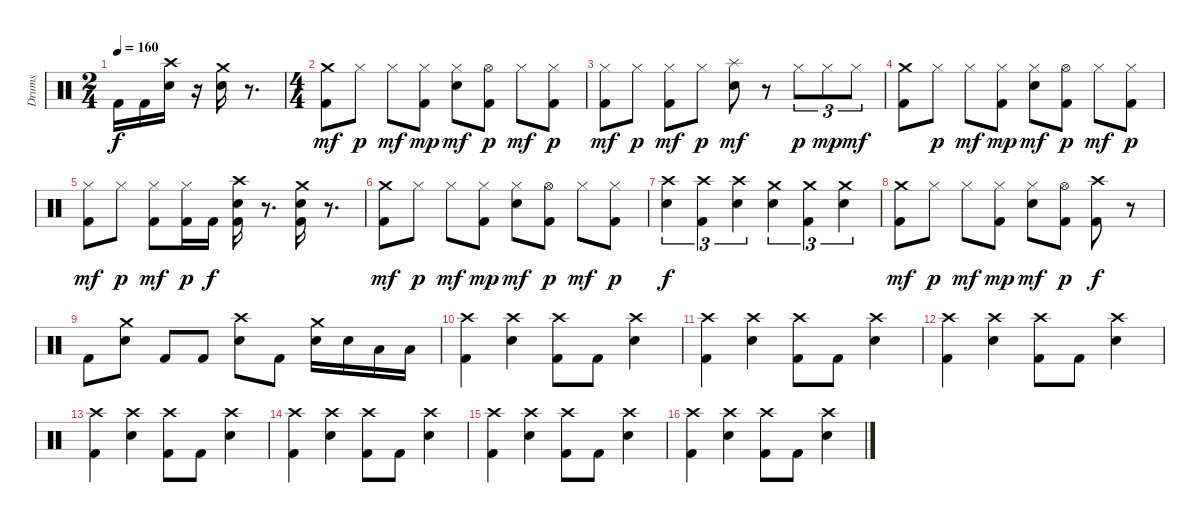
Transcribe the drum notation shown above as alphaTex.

\track ("Drums" "Drums") {instrument percussion}
\staff {score}
\articulation defaults
\ts (2 4)
\tempo 160
\clef neutral
\ks c "Kick (hit) 2".16{dy f} "Kick (hit) 2".16
("Electric Snare (hit)" "Crash high (hit)").16 r.16 ("Electric Snare (hit)" "Crash medium (hit)").16 r.8{d} |
\ts (4 4)
("Kick (hit) 2" "Crash medium (hit)").8{dy mf} "Hi-Hat (closed)".8{dy p} "Hi-Hat (closed)".8{dy mf} ("Kick (hit) 2" "Hi-Hat (closed)").8{dy mp} ("Electric Snare (hit)" "Hi-Hat (closed)").8{dy mf} ("Kick (hit) 2" "Hi-Hat (open)").8{dy p} "Hi-Hat (closed)".8{dy mf} ("Kick (hit) 2" "Hi-Hat (closed)").8{dy p} |
("Kick (hit) 2" "Hi-Hat (closed)").8{dy mf} "Hi-Hat (closed)".8{dy p} ("Kick (hit) 2" "Hi-Hat (closed)").8{dy mf} "Hi-Hat (closed)".8{dy p} ("Electric Snare (hit)" "Splash (hit)").8{dy mf} r.8 "Hi-Hat (closed)".8{tu (3 2) dy p} "Hi-Hat (closed)".8{tu (3 2) dy mp} "Hi-Hat (closed)".8{tu (3 2) dy mf} |
("Kick (hit) 2" "Crash medium (hit)").8 "Hi-Hat (closed)".8{dy p} "Hi-Hat (closed)".8{dy mf} ("Kick (hit) 2" "Hi-Hat (closed)").8{dy mp} ("Electric Snare (hit)" "Hi-Hat (closed)").8{dy mf} ("Kick (hit) 2" "Hi-Hat (open)").8{dy p} "Hi-Hat (closed)".8{dy mf} ("Kick (hit) 2" "Hi-Hat (closed)").8{dy p} |
("Kick (hit) 2" "Hi-Hat (closed)").8{dy mf} "Hi-Hat (closed)".8{dy p} ("Kick (hit) 2" "Hi-Hat (closed)").8{dy mf} ("Kick (hit) 2" "Hi-Hat (closed)").16{dy p} "Kick (hit) 2".16{dy f} ("Electric Snare (hit)" "Kick (hit) 2" "Crash high (hit)").16 r.8{d} ("Electric Snare (hit)" "Kick (hit) 2" "Crash medium (hit)").16 r.8{d} |
("Kick (hit) 2" "Crash medium (hit)").8{dy mf} "Hi-Hat (closed)".8{dy p} "Hi-Hat (closed)".8{dy mf} ("Kick (hit) 2" "Hi-Hat (closed)").8{dy mp} ("Electric Snare (hit)" "Hi-Hat (closed)").8{dy mf} ("Kick (hit) 2" "Hi-Hat (open)").8{dy p} "Hi-Hat (closed)".8{dy mf} ("Kick (hit) 2" "Hi-Hat (closed)").8{dy p} |
("Electric Snare (hit)" "Crash high (hit)").4{tu (3 2) dy f} ("Kick (hit) 2" "Crash high (hit)").4{tu (3 2)} ("Electric Snare (hit)" "Crash high (hit)").4{tu (3 2)} ("Electric Snare (hit)" "Crash medium (hit)").4{tu (3 2)} ("Kick (hit) 2" "Crash medium (hit)").4{tu (3 2)} ("Electric Snare (hit)" "Crash medium (hit)").4{tu (3 2)} |
("Kick (hit) 2" "Crash medium (hit)").8{dy mf} "Hi-Hat (closed)".8{dy p} "Hi-Hat (closed)".8{dy mf} ("Kick (hit) 2" "Hi-Hat (closed)").8{dy mp} ("Electric Snare (hit)" "Hi-Hat (closed)").8{dy mf} ("Kick (hit) 2" "Hi-Hat (open)").8{dy p} ("Kick (hit) 2" "Crash high (hit)").8{dy f} r.8 |
"Kick (hit) 2".8 ("Electric Snare (hit)" "Crash medium (hit)").8 "Kick (hit) 2".8 "Kick (hit) 2".8 ("Electric Snare (hit)" "Crash high (hit)").8 "Kick (hit) 2".8 ("Electric Snare (hit)" "Crash medium (hit)").16 "Electric Snare (hit)".16 "Low Tom (hit)".16 "Low Tom (hit)".16 |
("Kick (hit) 2" "Crash high (hit)").4 ("Electric Snare (hit)" "Crash high (hit)").4 ("Kick (hit) 2" "Crash high (hit)").8 "Kick (hit) 2".8 ("Electric Snare (hit)" "Crash high (hit)").4 |
("Kick (hit) 2" "Crash high (hit)").4 ("Electric Snare (hit)" "Crash high (hit)").4 ("Kick (hit) 2" "Crash high (hit)").8 "Kick (hit) 2".8 ("Electric Snare (hit)" "Crash high (hit)").4 |
("Kick (hit) 2" "Crash high (hit)").4 ("Electric Snare (hit)" "Crash high (hit)").4 ("Kick (hit) 2" "Crash high (hit)").8 "Kick (hit) 2".8 ("Electric Snare (hit)" "Crash high (hit)").4 |
("Kick (hit) 2" "Crash high (hit)").4 ("Electric Snare (hit)" "Crash high (hit)").4 ("Kick (hit) 2" "Crash high (hit)").8 "Kick (hit) 2".8 ("Electric Snare (hit)" "Crash high (hit)").4 |
("Kick (hit) 2" "Crash high (hit)").4 ("Electric Snare (hit)" "Crash high (hit)").4 ("Kick (hit) 2" "Crash high (hit)").8 "Kick (hit) 2".8 ("Electric Snare (hit)" "Crash high (hit)").4 |
("Kick (hit) 2" "Crash high (hit)").4 ("Electric Snare (hit)" "Crash high (hit)").4 ("Kick (hit) 2" "Crash high (hit)").8 "Kick (hit) 2".8 ("Electric Snare (hit)" "Crash high (hit)").4 |
("Kick (hit) 2" "Crash high (hit)").4 ("Electric Snare (hit)" "Crash high (hit)").4 ("Kick (hit) 2" "Crash high (hit)").8 "Kick (hit) 2".8 ("Electric Snare (hit)" "Crash high (hit)").4
